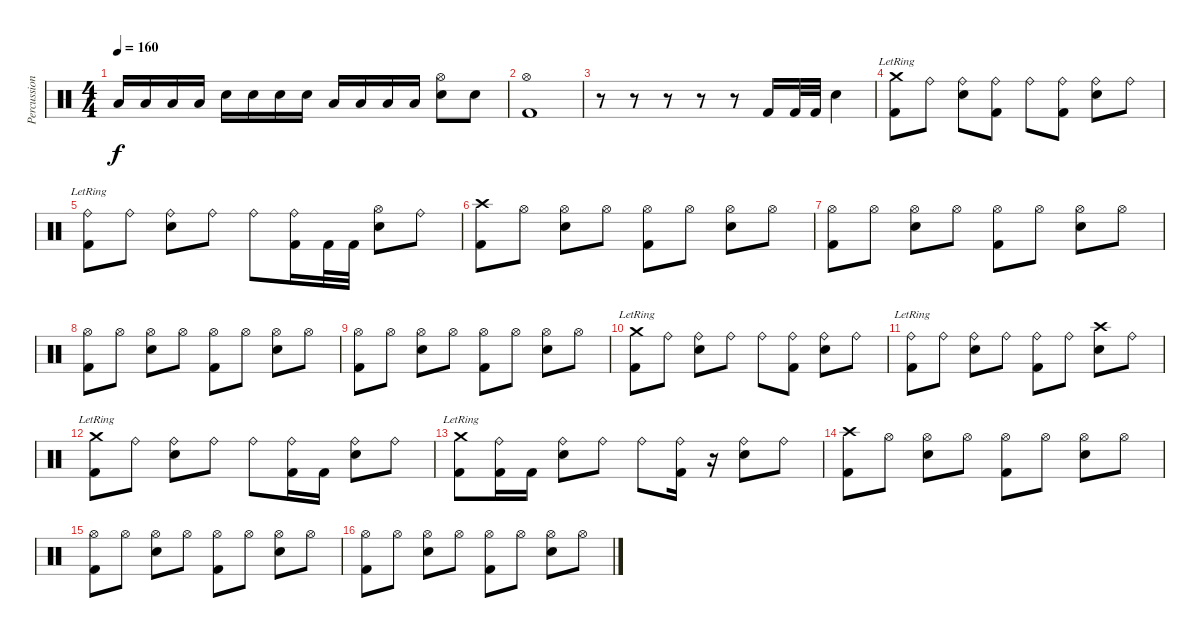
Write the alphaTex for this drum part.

\track ("Percussioni" "Percussion") {instrument percussion}
\staff {score}
\articulation defaults
\ts (4 4)
\tempo 160
\clef neutral
\ks c "Low Tom (hit)".16{dy f} "Low Tom (hit)".16 "Low Tom (hit)".16 "Low Tom (hit)".16 "Electric Snare (hit)".16 "Electric Snare (hit)".16 "Electric Snare (hit)".16 "Electric Snare (hit)".16 "Low Tom (hit)".16 "Low Tom (hit)".16 "Low Tom (hit)".16 "Low Tom (hit)".16
("Hi-Hat (open)" "Electric Snare (hit)").8 "Electric Snare (hit)".8 |
("Kick (hit) 2" "Hi-Hat (open)").1 |
r.8 r.8 r.8 r.8 r.8 "Kick (hit) 2".16 "Kick (hit) 2".32 "Kick (hit) 2".32 "Electric Snare (hit)".4 |
("Crash medium (hit)"{lr} "Kick (hit) 2").8 "Ride (bell)".8 ("Ride (bell)" "Electric Snare (hit)").8 ("Ride (bell)" "Kick (hit) 2").8 "Ride (bell)".8 ("Ride (bell)" "Kick (hit) 2").8 ("Ride (bell)" "Electric Snare (hit)").8 "Ride (bell)".8 |
("Ride (bell)"{lr} "Kick (hit) 2").8 "Ride (bell)".8 ("Ride (bell)" "Electric Snare (hit)").8 "Ride (bell)".8 "Ride (bell)".8 ("Ride (bell)" "Kick (hit) 2").16 "Kick (hit) 2".32 "Kick (hit) 2".32 ("Hi-Hat (open)" "Electric Snare (hit)").8 "Ride (bell)".8 |
("Crash high (hit)" "Kick (hit) 2").8 "Hi-Hat (open)".8 ("Hi-Hat (open)" "Electric Snare (hit)").8 "Hi-Hat (open)".8 ("Hi-Hat (open)" "Kick (hit) 2").8 "Hi-Hat (open)".8 ("Hi-Hat (open)" "Electric Snare (hit)").8 "Hi-Hat (open)".8 |
("Hi-Hat (open)" "Kick (hit) 2").8 "Hi-Hat (open)".8 ("Hi-Hat (open)" "Electric Snare (hit)").8 "Hi-Hat (open)".8 ("Hi-Hat (open)" "Kick (hit) 2").8 "Hi-Hat (open)".8 ("Hi-Hat (open)" "Electric Snare (hit)").8 "Hi-Hat (open)".8 |
("Hi-Hat (open)" "Kick (hit) 2").8 "Hi-Hat (open)".8 ("Hi-Hat (open)" "Electric Snare (hit)").8 "Hi-Hat (open)".8 ("Hi-Hat (open)" "Kick (hit) 2").8 "Hi-Hat (open)".8 ("Hi-Hat (open)" "Electric Snare (hit)").8 "Hi-Hat (open)".8 |
("Hi-Hat (open)" "Kick (hit) 2").8 "Hi-Hat (open)".8 ("Hi-Hat (open)" "Electric Snare (hit)").8 "Hi-Hat (open)".8 ("Hi-Hat (open)" "Kick (hit) 2").8 "Hi-Hat (open)".8 ("Hi-Hat (open)" "Electric Snare (hit)").8 "Hi-Hat (open)".8 |
("Crash medium (hit)"{lr} "Kick (hit) 2").8 "Ride (bell)".8 ("Ride (bell)" "Electric Snare (hit)").8 "Ride (bell)".8 "Ride (bell)".8 ("Ride (bell)" "Kick (hit) 2").8 ("Ride (bell)" "Electric Snare (hit)").8 "Ride (bell)".8 |
("Ride (bell)"{lr} "Kick (hit) 2").8 "Ride (bell)".8 ("Ride (bell)" "Electric Snare (hit)").8 "Ride (bell)".8 ("Ride (bell)" "Kick (hit) 2").8 "Ride (bell)".8 ("Crash high (hit)" "Electric Snare (hit)").8 "Ride (bell)".8 |
("Crash medium (hit)"{lr} "Kick (hit) 2").8 "Ride (bell)".8 ("Ride (bell)" "Electric Snare (hit)").8 "Ride (bell)".8 "Ride (bell)".8 ("Ride (bell)" "Kick (hit) 2").16 "Kick (hit) 2".16 ("Ride (bell)" "Electric Snare (hit)").8 "Ride (bell)".8 |
("Crash medium (hit)"{lr} "Kick (hit) 2").8 ("Ride (bell)" "Kick (hit) 2").16 "Kick (hit) 2".16 ("Ride (bell)" "Electric Snare (hit)").8 "Ride (bell)".8 "Ride (bell)".8 ("Ride (bell)" "Kick (hit) 2").16 r.16 ("Ride (bell)" "Electric Snare (hit)").8 "Ride (bell)".8 |
("Crash high (hit)" "Kick (hit) 2").8 "Hi-Hat (open)".8 ("Hi-Hat (open)" "Electric Snare (hit)").8 "Hi-Hat (open)".8 ("Hi-Hat (open)" "Kick (hit) 2").8 "Hi-Hat (open)".8 ("Hi-Hat (open)" "Electric Snare (hit)").8 "Hi-Hat (open)".8 |
("Hi-Hat (open)" "Kick (hit) 2").8 "Hi-Hat (open)".8 ("Hi-Hat (open)" "Electric Snare (hit)").8 "Hi-Hat (open)".8 ("Hi-Hat (open)" "Kick (hit) 2").8 "Hi-Hat (open)".8 ("Hi-Hat (open)" "Electric Snare (hit)").8 "Hi-Hat (open)".8 |
("Hi-Hat (open)" "Kick (hit) 2").8 "Hi-Hat (open)".8 ("Hi-Hat (open)" "Electric Snare (hit)").8 "Hi-Hat (open)".8 ("Hi-Hat (open)" "Kick (hit) 2").8 "Hi-Hat (open)".8 ("Hi-Hat (open)" "Electric Snare (hit)").8 "Hi-Hat (open)".8
